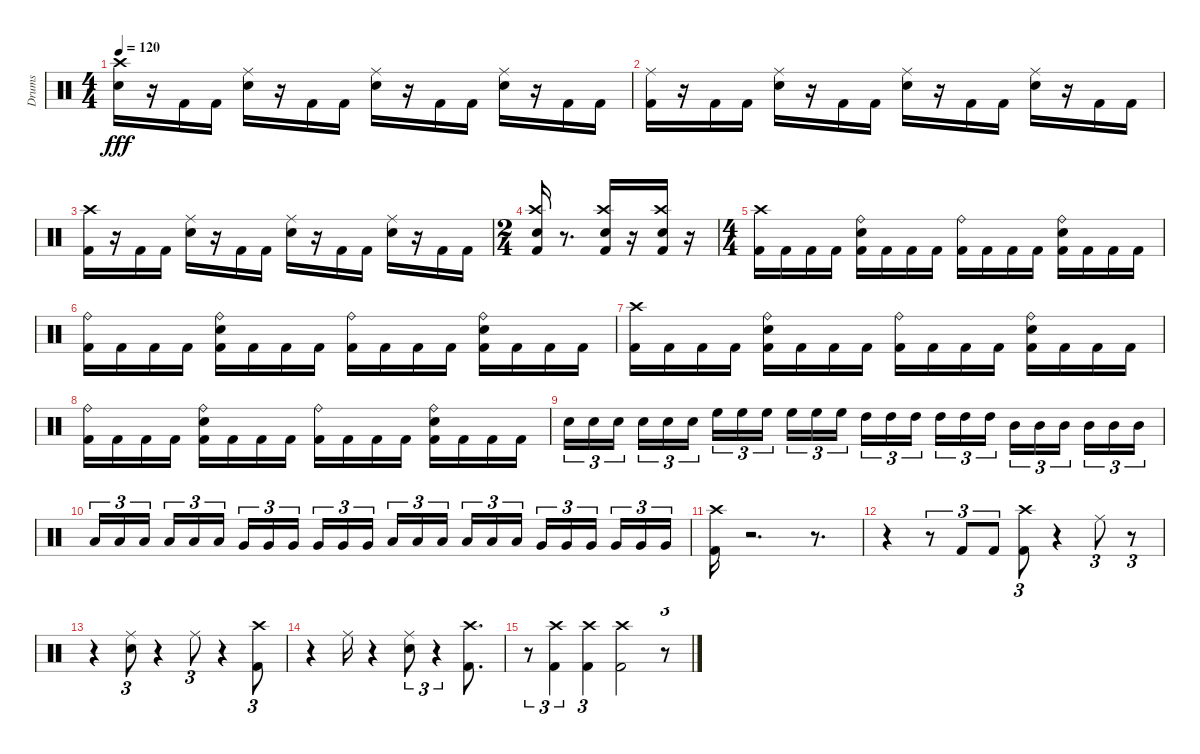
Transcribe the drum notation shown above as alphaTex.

\track ("Drums" "Drums") {instrument percussion}
\staff {score}
\articulation defaults
\ts (4 4)
\tempo 120
\clef neutral
\ks c
("Electric Snare (hit)" "Crash high (hit)").16{dy fff} r.16 "Kick (hit) 2".16 "Kick (hit) 2".16 ("Electric Snare (hit)" "Ride (middle)").16 r.16 "Kick (hit) 2".16 "Kick (hit) 2".16 ("Electric Snare (hit)" "Ride (middle)").16 r.16 "Kick (hit) 2".16 "Kick (hit) 2".16 ("Electric Snare (hit)" "Ride (middle)").16 r.16 "Kick (hit) 2".16 "Kick (hit) 2".16 |
("Ride (middle)" "Kick (hit) 2").16 r.16 "Kick (hit) 2".16 "Kick (hit) 2".16 ("Ride (middle)" "Electric Snare (hit)").16 r.16 "Kick (hit) 2".16 "Kick (hit) 2".16 ("Ride (middle)" "Electric Snare (hit)").16 r.16 "Kick (hit) 2".16 "Kick (hit) 2".16 ("Ride (middle)" "Electric Snare (hit)").16 r.16 "Kick (hit) 2".16 "Kick (hit) 2".16 |
("Kick (hit) 2" "Crash high (hit)").16 r.16 "Kick (hit) 2".16 "Kick (hit) 2".16 ("Electric Snare (hit)" "Ride (middle)").16 r.16 "Kick (hit) 2".16 "Kick (hit) 2".16 ("Electric Snare (hit)" "Ride (middle)").16 r.16 "Kick (hit) 2".16 "Kick (hit) 2".16 ("Electric Snare (hit)" "Ride (middle)").16 r.16 "Kick (hit) 2".16 "Kick (hit) 2".16 |
\ts (2 4)
("Crash high (hit)" "Electric Snare (hit)" "Kick (hit) 2").16 r.8{d} ("Crash high (hit)" "Electric Snare (hit)" "Kick (hit) 2").16 r.16 ("Crash high (hit)" "Electric Snare (hit)" "Kick (hit) 2").16 r.16 |
\ts (4 4)
("Crash high (hit)" "Kick (hit) 2").16 "Kick (hit) 2".16 "Kick (hit) 2".16 "Kick (hit) 2".16 ("Electric Snare (hit)" "Ride (bell)" "Kick (hit) 2").16 "Kick (hit) 2".16 "Kick (hit) 2".16 "Kick (hit) 2".16 ("Ride (bell)" "Kick (hit) 2").16 "Kick (hit) 2".16 "Kick (hit) 2".16 "Kick (hit) 2".16 ("Electric Snare (hit)" "Ride (bell)" "Kick (hit) 2").16 "Kick (hit) 2".16 "Kick (hit) 2".16 "Kick (hit) 2".16 |
("Ride (bell)" "Kick (hit) 2").16 "Kick (hit) 2".16 "Kick (hit) 2".16 "Kick (hit) 2".16 ("Electric Snare (hit)" "Ride (bell)" "Kick (hit) 2").16 "Kick (hit) 2".16 "Kick (hit) 2".16 "Kick (hit) 2".16 ("Ride (bell)" "Kick (hit) 2").16 "Kick (hit) 2".16 "Kick (hit) 2".16 "Kick (hit) 2".16 ("Electric Snare (hit)" "Ride (bell)" "Kick (hit) 2").16 "Kick (hit) 2".16 "Kick (hit) 2".16 "Kick (hit) 2".16 |
("Kick (hit) 2" "Crash high (hit)").16 "Kick (hit) 2".16 "Kick (hit) 2".16 "Kick (hit) 2".16 ("Kick (hit) 2" "Ride (bell)" "Electric Snare (hit)").16 "Kick (hit) 2".16 "Kick (hit) 2".16 "Kick (hit) 2".16 ("Kick (hit) 2" "Ride (bell)").16 "Kick (hit) 2".16 "Kick (hit) 2".16 "Kick (hit) 2".16 ("Kick (hit) 2" "Ride (bell)" "Electric Snare (hit)").16 "Kick (hit) 2".16 "Kick (hit) 2".16 "Kick (hit) 2".16 |
("Kick (hit) 2" "Ride (bell)").16 "Kick (hit) 2".16 "Kick (hit) 2".16 "Kick (hit) 2".16 ("Kick (hit) 2" "Ride (bell)" "Electric Snare (hit)").16 "Kick (hit) 2".16 "Kick (hit) 2".16 "Kick (hit) 2".16 ("Kick (hit) 2" "Ride (bell)").16 "Kick (hit) 2".16 "Kick (hit) 2".16 "Kick (hit) 2".16 ("Kick (hit) 2" "Ride (bell)" "Electric Snare (hit)").16 "Kick (hit) 2".16 "Kick (hit) 2".16 "Kick (hit) 2".16 |
"Electric Snare (hit)".16{tu (3 2)} "Electric Snare (hit)".16{tu (3 2)} "Electric Snare (hit)".16{tu (3 2) beam splitsecondary} "Electric Snare (hit)".16{tu (3 2)} "Electric Snare (hit)".16{tu (3 2)} "Electric Snare (hit)".16{tu (3 2)} "High Floor Tom (hit)".16{tu (3 2)} "High Floor Tom (hit)".16{tu (3 2)} "High Floor Tom (hit)".16{tu (3 2) beam splitsecondary} "High Floor Tom (hit)".16{tu (3 2)} "High Floor Tom (hit)".16{tu (3 2)} "High Floor Tom (hit)".16{tu (3 2)} "High Tom (hit)".16{tu (3 2)} "High Tom (hit)".16{tu (3 2)} "High Tom (hit)".16{tu (3 2) beam splitsecondary} "High Tom (hit)".16{tu (3 2)} "High Tom (hit)".16{tu (3 2)} "High Tom (hit)".16{tu (3 2)} "Mid Tom (hit)".16{tu (3 2)} "Mid Tom (hit)".16{tu (3 2)} "Mid Tom (hit)".16{tu (3 2) beam splitsecondary} "Mid Tom (hit)".16{tu (3 2)} "Mid Tom (hit)".16{tu (3 2)} "Mid Tom (hit)".16{tu (3 2)} |
"Low Tom (hit)".16{tu (3 2)} "Low Tom (hit)".16{tu (3 2)} "Low Tom (hit)".16{tu (3 2) beam splitsecondary} "Low Tom (hit)".16{tu (3 2)} "Low Tom (hit)".16{tu (3 2)} "Low Tom (hit)".16{tu (3 2)} "Very Low Tom (hit)".16{tu (3 2)} "Very Low Tom (hit)".16{tu (3 2)} "Very Low Tom (hit)".16{tu (3 2) beam splitsecondary} "Very Low Tom (hit)".16{tu (3 2)} "Very Low Tom (hit)".16{tu (3 2)} "Very Low Tom (hit)".16{tu (3 2)} "Low Floor Tom (hit)".16{tu (3 2)} "Low Floor Tom (hit)".16{tu (3 2)} "Low Floor Tom (hit)".16{tu (3 2) beam splitsecondary} "Low Floor Tom (hit)".16{tu (3 2)} "Low Floor Tom (hit)".16{tu (3 2)} "Low Floor Tom (hit)".16{tu (3 2)} "Very Low Tom (hit)".16{tu (3 2)} "Very Low Tom (hit)".16{tu (3 2)} "Very Low Tom (hit)".16{tu (3 2) beam splitsecondary} "Very Low Tom (hit)".16{tu (3 2)} "Very Low Tom (hit)".16{tu (3 2)} "Very Low Tom (hit)".16{tu (3 2)} |
("Crash high (hit)" "Kick (hit) 2").16 r.2{d} r.8{d} |
r.4 r.8{tu (3 2)} "Kick (hit) 2".8{tu (3 2)} "Kick (hit) 2".8{tu (3 2)} ("Crash high (hit)" "Kick (hit) 2").8{tu (3 2)} r.4 "Ride (middle)".8{tu (3 2)} r.8{tu (3 2)} |
r.4 ("Electric Snare (hit)" "Ride (middle)").8{tu (3 2)} r.4 "Ride (middle)".8{tu (3 2)} r.4 ("Kick (hit) 2" "Crash high (hit)").8{tu (3 2)} |
r.4 "Ride (middle)".16 r.4 ("Ride (middle)" "Electric Snare (hit)").8{tu (3 2)} r.4{tu (3 2)} ("Crash high (hit)" "Kick (hit) 2").8{d} |
r.8{tu (3 2)} ("Crash high (hit)" "Kick (hit) 2").4{tu (3 2)} ("Crash high (hit)" "Kick (hit) 2").4{tu (3 2)} ("Crash high (hit)" "Kick (hit) 2").2 r.8{tu (3 2)}
